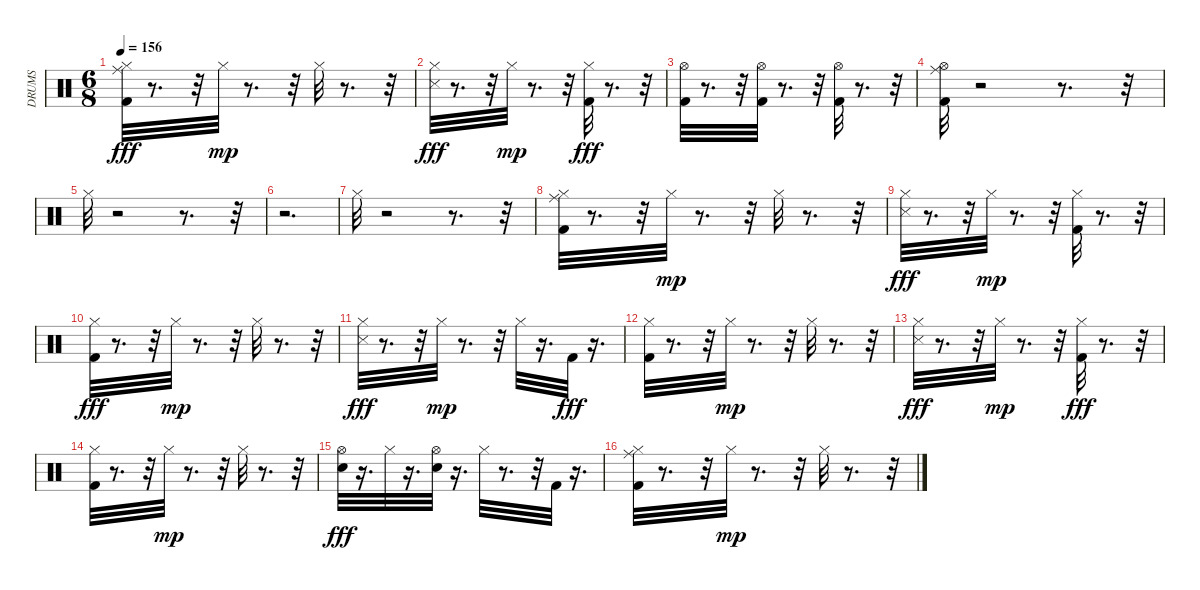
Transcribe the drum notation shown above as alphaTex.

\track ("DRUMS" "DRUMS") {instrument percussion}
\staff {score}
\articulation defaults
\ts (6 8)
\tempo 156
\clef neutral
\ks c
("Ride (middle)" "Hi-Hat (closed)" "Kick (hit) 2").32{dy fff} r.8{d} r.32 "Hi-Hat (closed)".32{dy mp} r.8{d} r.32 "Hi-Hat (closed)".32 r.8{d} r.32 |
("Snare (side stick) 3" "Hi-Hat (closed)").32{dy fff} r.8{d} r.32 "Hi-Hat (closed)".32{dy mp} r.8{d} r.32 ("Hi-Hat (closed)" "Kick (hit) 2").32{dy fff} r.8{d} r.32 |
("Hi-Hat (open)" "Kick (hit) 2").32 r.8{d} r.32 ("Hi-Hat (open)" "Kick (hit) 2").32 r.8{d} r.32 ("Hi-Hat (open)" "Kick (hit) 2").32 r.8{d} r.32 |
("Ride (middle)" "Hi-Hat (open)" "Kick (hit) 2").32 r.2 r.8{d} r.32 |
"Hi-Hat (closed)".32 r.2 r.8{d} r.32 |
r.2{d} |
"Hi-Hat (closed)".32 r.2 r.8{d} r.32 |
("Ride (middle)" "Hi-Hat (closed)" "Kick (hit) 2").32 r.8{d} r.32 "Hi-Hat (closed)".32{dy mp} r.8{d} r.32 "Hi-Hat (closed)".32 r.8{d} r.32 |
("Hi-Hat (closed)" "Snare (side stick) 3").32{dy fff} r.8{d} r.32 "Hi-Hat (closed)".32{dy mp} r.8{d} r.32 ("Kick (hit) 2" "Hi-Hat (closed)").32 r.8{d} r.32 |
("Hi-Hat (closed)" "Kick (hit) 2").32{dy fff} r.8{d} r.32 "Hi-Hat (closed)".32{dy mp} r.8{d} r.32 "Hi-Hat (closed)".32 r.8{d} r.32 |
("Hi-Hat (closed)" "Snare (side stick) 3").32{dy fff} r.8{d} r.32 "Hi-Hat (closed)".32{dy mp} r.8{d} r.32 "Hi-Hat (closed)".32 r.16{d} "Kick (hit) 2".32{dy fff} r.16{d} |
("Hi-Hat (closed)" "Kick (hit) 2").32 r.8{d} r.32 "Hi-Hat (closed)".32{dy mp} r.8{d} r.32 "Hi-Hat (closed)".32 r.8{d} r.32 |
("Hi-Hat (closed)" "Snare (side stick) 3").32{dy fff} r.8{d} r.32 "Hi-Hat (closed)".32{dy mp} r.8{d} r.32 ("Hi-Hat (closed)" "Kick (hit) 2").32{dy fff} r.8{d} r.32 |
("Hi-Hat (closed)" "Kick (hit) 2").32 r.8{d} r.32 "Hi-Hat (closed)".32{dy mp} r.8{d} r.32 "Hi-Hat (closed)".32 r.8{d} r.32 |
("Hi-Hat (open)" "Snare (hit) 2").32{dy fff} r.16{d} "Hi-Hat (closed)".32 r.16{d} ("Hi-Hat (open)" "Snare (hit) 2").32 r.16{d} "Hi-Hat (closed)".32 r.8{d} r.32 "Kick (hit) 2".32 r.16{d} |
("Ride (middle)" "Hi-Hat (closed)" "Kick (hit) 2").32 r.8{d} r.32 "Hi-Hat (closed)".32{dy mp} r.8{d} r.32 "Hi-Hat (closed)".32 r.8{d} r.32
